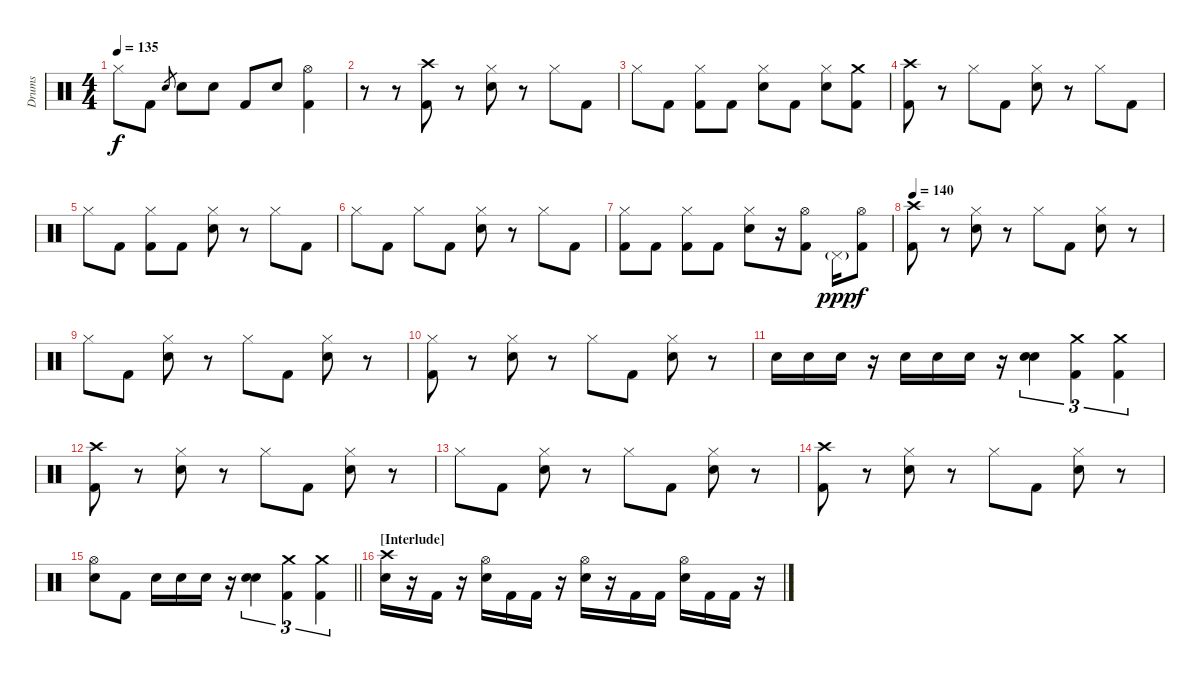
\track ("Drums" "Drums") {instrument percussion}
\staff {score}
\articulation defaults
\ts (4 4)
\tempo 135
\clef neutral
\ks c "Hi-Hat (closed)".8{dy f} "Kick (hit) 2".8 "Snare (hit) 2".8{gr} "Snare (hit) 2".8 "Snare (hit) 2".8 "Kick (hit) 2".8 "Snare (hit) 2".8
("Hi-Hat (open)" "Kick (hit) 2").4 |
r.8 r.8 ("Crash high (hit)" "Kick (hit) 2").8 r.8 ("Hi-Hat (closed)" "Snare (hit) 2").8 r.8 "Hi-Hat (closed)".8 "Kick (hit) 2".8 |
"Hi-Hat (closed)".8 "Kick (hit) 2".8 ("Hi-Hat (closed)" "Kick (hit) 2").8 "Kick (hit) 2".8 ("Hi-Hat (closed)" "Snare (hit) 2").8 "Kick (hit) 2".8 ("Hi-Hat (closed)" "Snare (hit) 2").8 ("Crash medium (hit)" "Kick (hit) 2").8 |
("Crash high (hit)" "Kick (hit) 2").8 r.8 "Hi-Hat (closed)".8 "Kick (hit) 2".8 ("Hi-Hat (closed)" "Snare (hit) 2").8 r.8 "Hi-Hat (closed)".8 "Kick (hit) 2".8 |
"Hi-Hat (closed)".8 "Kick (hit) 2".8 ("Hi-Hat (closed)" "Kick (hit) 2").8 "Kick (hit) 2".8 ("Hi-Hat (closed)" "Snare (hit) 2").8 r.8 "Hi-Hat (closed)".8 "Kick (hit) 2".8 |
"Hi-Hat (closed)".8 "Kick (hit) 2".8 "Hi-Hat (closed)".8 "Kick (hit) 2".8 ("Hi-Hat (closed)" "Snare (hit) 2").8 r.8 "Hi-Hat (closed)".8 "Kick (hit) 2".8 |
("Hi-Hat (closed)" "Kick (hit) 2").8 "Kick (hit) 2".8 ("Hi-Hat (closed)" "Kick (hit) 2").8 "Kick (hit) 2".8 ("Hi-Hat (closed)" "Snare (hit) 2").8 r.16 ("Hi-Hat (open)" "Kick (hit) 2").8 "Pedal Hi-Hat (hit)"{g}.16{dy ppp} ("Hi-Hat (open)" "Kick (hit) 2").8{dy f} |
\tempo 140
("Crash high (hit)" "Kick (hit) 2").8 r.8 ("Hi-Hat (closed)" "Snare (hit) 2").8 r.8 "Hi-Hat (closed)".8 "Kick (hit) 2".8 ("Hi-Hat (closed)" "Snare (hit) 2").8 r.8 |
"Hi-Hat (closed)".8 "Kick (hit) 2".8 ("Hi-Hat (closed)" "Snare (hit) 2").8 r.8 "Hi-Hat (closed)".8 "Kick (hit) 2".8 ("Hi-Hat (closed)" "Snare (hit) 2").8 r.8 |
("Hi-Hat (closed)" "Kick (hit) 2").8 r.8 ("Hi-Hat (closed)" "Snare (hit) 2").8 r.8 "Hi-Hat (closed)".8 "Kick (hit) 2".8 ("Hi-Hat (closed)" "Snare (hit) 2").8 r.8 |
"Snare (hit) 2".16 "Snare (hit) 2".16 "Snare (hit) 2".16 r.16 "Snare (hit) 2".16 "Snare (hit) 2".16 "Snare (hit) 2".16 r.16 ("Snare (hit) 2" "Snare (hit) 2").4{tu (3 2) bd 480} ("Crash medium (hit)" "Kick (hit) 2").4{tu (3 2)} ("Crash medium (hit)" "Kick (hit) 2").4{tu (3 2)} |
("Crash high (hit)" "Kick (hit) 2").8 r.8 ("Hi-Hat (closed)" "Snare (hit) 2").8 r.8 "Hi-Hat (closed)".8 "Kick (hit) 2".8 ("Hi-Hat (closed)" "Snare (hit) 2").8 r.8 |
"Hi-Hat (closed)".8 "Kick (hit) 2".8 ("Hi-Hat (closed)" "Snare (hit) 2").8 r.8 "Hi-Hat (closed)".8 "Kick (hit) 2".8 ("Hi-Hat (closed)" "Snare (hit) 2").8 r.8 |
("Crash high (hit)" "Kick (hit) 2").8 r.8 ("Hi-Hat (closed)" "Snare (hit) 2").8 r.8 "Hi-Hat (closed)".8 "Kick (hit) 2".8 ("Hi-Hat (closed)" "Snare (hit) 2").8 r.8 |
\barLineRight lightlight
("Hi-Hat (open)" "Snare (hit) 2").8 "Kick (hit) 2".8 "Snare (hit) 2".16 "Snare (hit) 2".16 "Snare (hit) 2".16 r.16 ("Snare (hit) 2" "Snare (hit) 2").4{tu (3 2) bd 480} ("Crash medium (hit)" "Kick (hit) 2").4{tu (3 2)} ("Crash medium (hit)" "Kick (hit) 2").4{tu (3 2)} |
\section ("" "[Interlude]")
("Crash high (hit)" "Snare (hit) 2").16 r.16 "Kick (hit) 2".16 r.16 ("Hi-Hat (open)" "Snare (hit) 2").16 "Kick (hit) 2".16 "Kick (hit) 2".16 r.16 ("Hi-Hat (open)" "Snare (hit) 2").16 r.16 "Kick (hit) 2".16 "Kick (hit) 2".16 ("Hi-Hat (open)" "Snare (hit) 2").16 "Kick (hit) 2".16 "Kick (hit) 2".16 r.16
